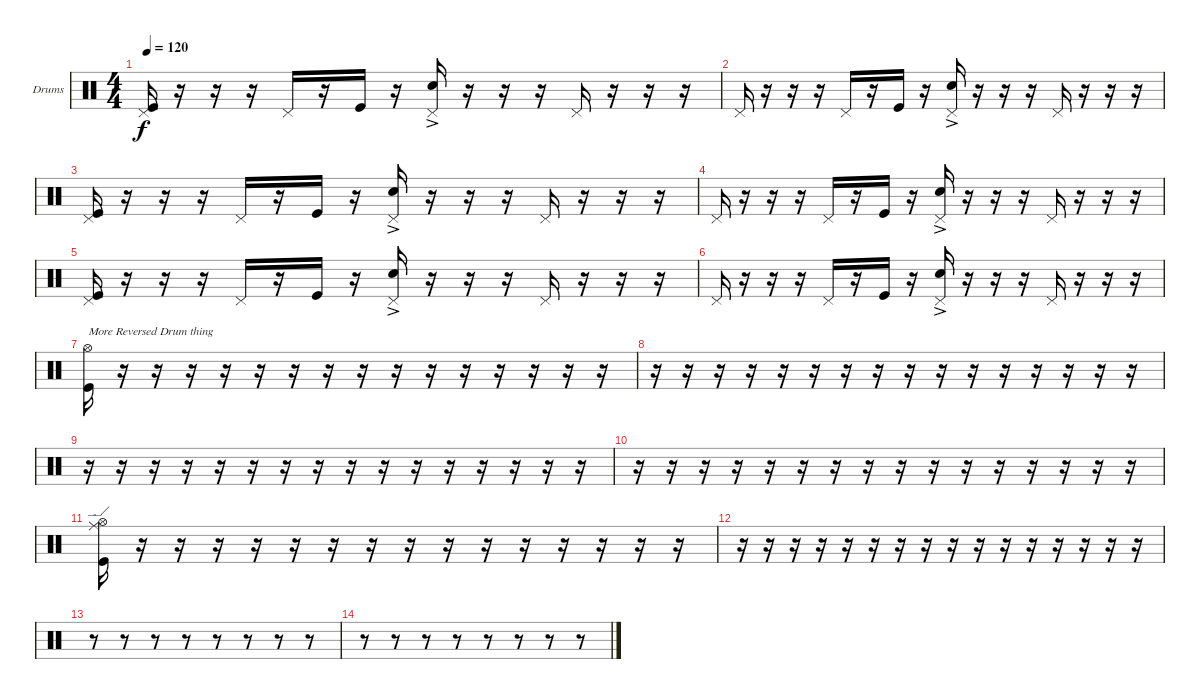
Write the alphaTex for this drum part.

\defaultSystemsLayout 4
\bracketExtendMode groupsimilarinstruments
\firstSystemTrackNameOrientation horizontal
\otherSystemsTrackNameOrientation horizontal
\track ("Drumkit" "Drums") {instrument percussion}
\staff {score}
\articulation defaults
\ts (4 4)
\tempo 120
\clef neutral
\ks c
("Kick (hit)" "Pedal Hi-Hat (hit)").16{dy f} r.16 r.16 r.16 "Pedal Hi-Hat (hit)".16 r.16 "Kick (hit)".16 r.16 ("Snare (hit) 2"{ac} "Pedal Hi-Hat (hit)"{ac}).16 r.16 r.16 r.16 "Pedal Hi-Hat (hit)".16 r.16 r.16 r.16 |
"Pedal Hi-Hat (hit)".16 r.16 r.16 r.16 "Pedal Hi-Hat (hit)".16 r.16 "Kick (hit)".16 r.16 ("Pedal Hi-Hat (hit)"{ac} "Snare (hit) 2"{ac}).16 r.16 r.16 r.16 "Pedal Hi-Hat (hit)".16 r.16 r.16 r.16 |
("Kick (hit)" "Pedal Hi-Hat (hit)").16 r.16 r.16 r.16 "Pedal Hi-Hat (hit)".16 r.16 "Kick (hit)".16 r.16 ("Snare (hit) 2"{ac} "Pedal Hi-Hat (hit)"{ac}).16 r.16 r.16 r.16 "Pedal Hi-Hat (hit)".16 r.16 r.16 r.16 |
"Pedal Hi-Hat (hit)".16 r.16 r.16 r.16 "Pedal Hi-Hat (hit)".16 r.16 "Kick (hit)".16 r.16 ("Pedal Hi-Hat (hit)"{ac} "Snare (hit) 2"{ac}).16 r.16 r.16 r.16 "Pedal Hi-Hat (hit)".16 r.16 r.16 r.16 |
("Kick (hit)" "Pedal Hi-Hat (hit)").16 r.16 r.16 r.16 "Pedal Hi-Hat (hit)".16 r.16 "Kick (hit)".16 r.16 ("Snare (hit) 2"{ac} "Pedal Hi-Hat (hit)"{ac}).16 r.16 r.16 r.16 "Pedal Hi-Hat (hit)".16 r.16 r.16 r.16 |
"Pedal Hi-Hat (hit)".16 r.16 r.16 r.16 "Pedal Hi-Hat (hit)".16 r.16 "Kick (hit)".16 r.16 ("Pedal Hi-Hat (hit)"{ac} "Snare (hit) 2"{ac}).16 r.16 r.16 r.16 "Pedal Hi-Hat (hit)".16 r.16 r.16 r.16 |
("Kick (hit)" "Hi-Hat (open)").16{txt "More Reversed Drum thing"} r.16 r.16 r.16 r.16 r.16 r.16 r.16 r.16 r.16 r.16 r.16 r.16 r.16 r.16 r.16 |
r.16 r.16 r.16 r.16 r.16 r.16 r.16 r.16 r.16 r.16 r.16 r.16 r.16 r.16 r.16 r.16 |
r.16 r.16 r.16 r.16 r.16 r.16 r.16 r.16 r.16 r.16 r.16 r.16 r.16 r.16 r.16 r.16 |
r.16 r.16 r.16 r.16 r.16 r.16 r.16 r.16 r.16 r.16 r.16 r.16 r.16 r.16 r.16 r.16 |
("Kick (hit)" "Ride (edge)" "Hi-Hat (open)").16 r.16 r.16 r.16 r.16 r.16 r.16 r.16 r.16 r.16 r.16 r.16 r.16 r.16 r.16 r.16 |
r.16 r.16 r.16 r.16 r.16 r.16 r.16 r.16 r.16 r.16 r.16 r.16 r.16 r.16 r.16 r.16 |
r.8 r.8 r.8 r.8 r.8 r.8 r.8 r.8 |
r.8 r.8 r.8 r.8 r.8 r.8 r.8 r.8
